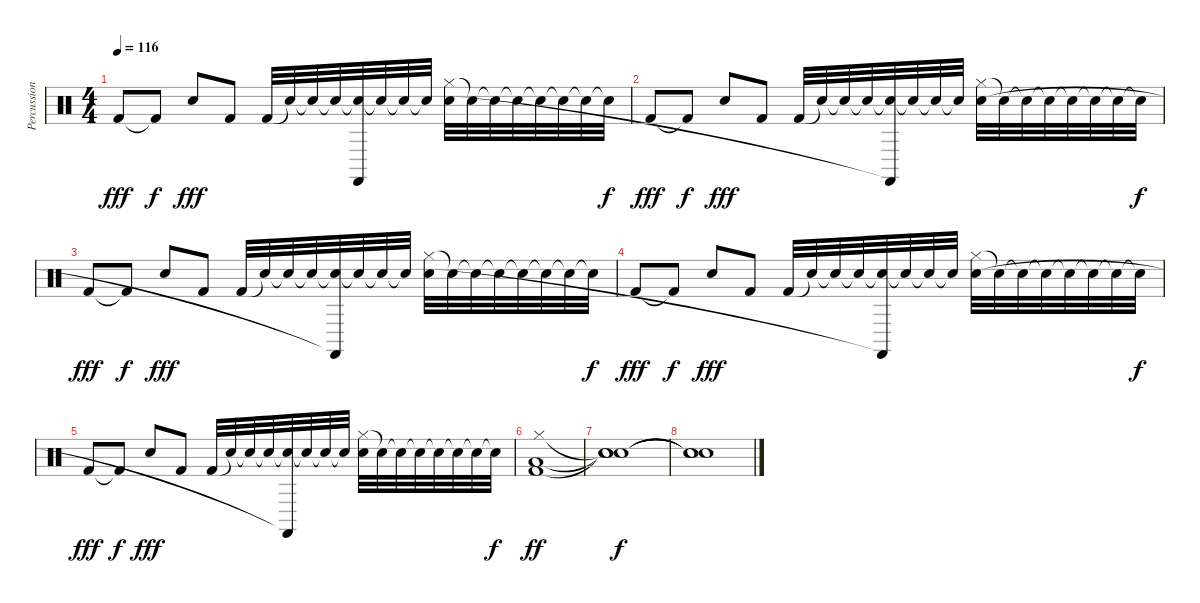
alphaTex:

\track ("Percussion" "Percussion") {instrument percussion}
\staff {score}
\articulation defaults
\ts (4 4)
\tempo 116
\clef neutral
\ks c "Kick (hit) 2".8{dy fff} "Kick (hit) 2"{t}.8{dy f} "Electric Snare (hit)".8{dy fff} "Kick (hit) 2".8 "Kick (hit) 2".32 "Snare (hit)"{t}.32 "Snare (hit)"{t}.32 "Snare (hit)"{t}.32
("Snare (hit)"{t} "Castanets (hit)"{t}).32 "Snare (hit)"{t}.32 "Snare (hit)"{t}.32 "Snare (hit)"{t}.32 ("Hi-Hat (closed)" "Electric Snare (hit)").32 "Snare (hit)"{t}.32 "Snare (hit)"{t}.32 "Snare (hit)"{t}.32 "Snare (hit)"{t}.32 "Snare (hit)"{t}.32 "Snare (hit)"{t}.32 "Snare (hit)"{t}.32{dy f} |
"Kick (hit) 2".8{dy fff} "Kick (hit) 2"{t}.8{dy f} "Electric Snare (hit)".8{dy fff} "Kick (hit) 2".8 "Kick (hit) 2".32 "Snare (hit)"{t}.32 "Snare (hit)"{t}.32 "Snare (hit)"{t}.32 ("Snare (hit)"{t} "Castanets (hit)"{t}).32 "Snare (hit)"{t}.32 "Snare (hit)"{t}.32 "Snare (hit)"{t}.32 ("Hi-Hat (closed)" "Electric Snare (hit)").32 "Snare (hit)"{t}.32 "Snare (hit)"{t}.32 "Snare (hit)"{t}.32 "Snare (hit)"{t}.32 "Snare (hit)"{t}.32 "Snare (hit)"{t}.32 "Snare (hit)"{t}.32{dy f} |
"Kick (hit) 2".8{dy fff} "Kick (hit) 2"{t}.8{dy f} "Electric Snare (hit)".8{dy fff} "Kick (hit) 2".8 "Kick (hit) 2".32 "Snare (hit)"{t}.32 "Snare (hit)"{t}.32 "Snare (hit)"{t}.32 ("Snare (hit)"{t} "Castanets (hit)"{t}).32 "Snare (hit)"{t}.32 "Snare (hit)"{t}.32 "Snare (hit)"{t}.32 ("Hi-Hat (closed)" "Electric Snare (hit)").32 "Snare (hit)"{t}.32 "Snare (hit)"{t}.32 "Snare (hit)"{t}.32 "Snare (hit)"{t}.32 "Snare (hit)"{t}.32 "Snare (hit)"{t}.32 "Snare (hit)"{t}.32{dy f} |
"Kick (hit) 2".8{dy fff} "Kick (hit) 2"{t}.8{dy f} "Electric Snare (hit)".8{dy fff} "Kick (hit) 2".8 "Kick (hit) 2".32 "Snare (hit)"{t}.32 "Snare (hit)"{t}.32 "Snare (hit)"{t}.32 ("Snare (hit)"{t} "Castanets (hit)"{t}).32 "Snare (hit)"{t}.32 "Snare (hit)"{t}.32 "Snare (hit)"{t}.32 ("Hi-Hat (closed)" "Electric Snare (hit)").32 "Snare (hit)"{t}.32 "Snare (hit)"{t}.32 "Snare (hit)"{t}.32 "Snare (hit)"{t}.32 "Snare (hit)"{t}.32 "Snare (hit)"{t}.32 "Snare (hit)"{t}.32{dy f} |
"Kick (hit) 2".8{dy fff} "Kick (hit) 2"{t}.8{dy f} "Electric Snare (hit)".8{dy fff} "Kick (hit) 2".8 "Kick (hit) 2".32 "Snare (hit)"{t}.32 "Snare (hit)"{t}.32 "Snare (hit)"{t}.32 ("Snare (hit)"{t} "Castanets (hit)"{t}).32 "Snare (hit)"{t}.32 "Snare (hit)"{t}.32 "Snare (hit)"{t}.32 ("Hi-Hat (closed)" "Electric Snare (hit)").32 "Snare (hit)"{t}.32 "Snare (hit)"{t}.32 "Snare (hit)"{t}.32 "Snare (hit)"{t}.32 "Snare (hit)"{t}.32 "Snare (hit)"{t}.32 "Snare (hit)"{t}.32{dy f} |
("Hi-Hat (closed)" "Low Floor Tom (hit)" "Kick (hit) 2").1{dy ff} |
("Snare (hit)"{t} "Snare (hit)"{t} "Snare (hit)"{t}).1{dy f} |
("Snare (hit)"{t} "Snare (hit)"{t} "Snare (hit)"{t}).1
